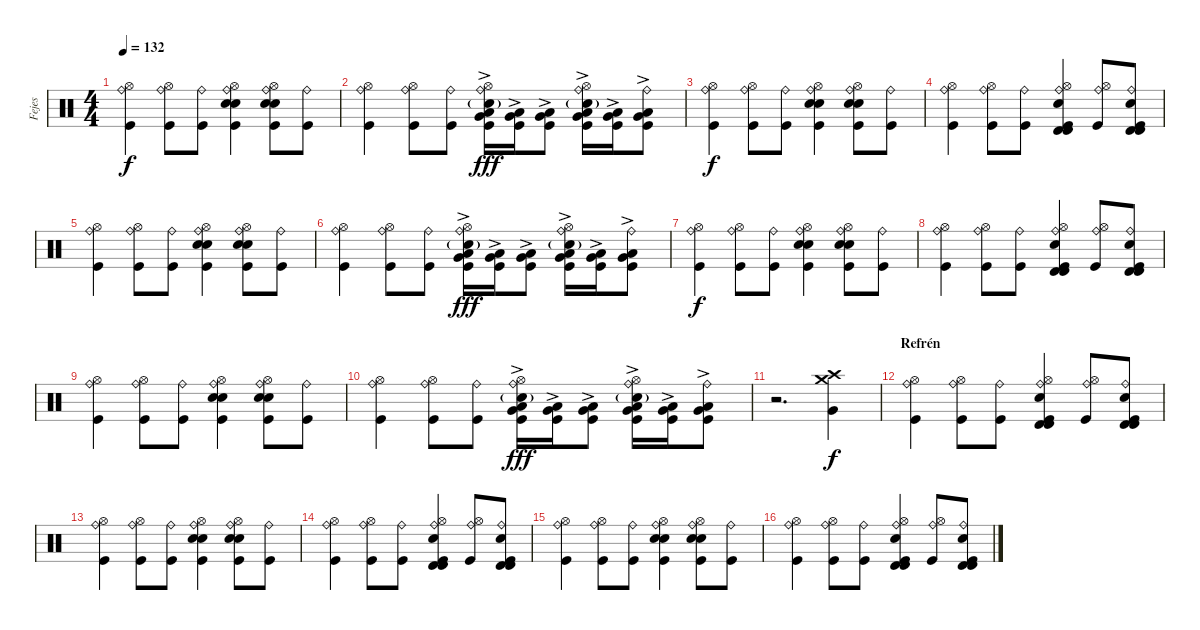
\track ("Fejes" "Fejes") {instrument percussion}
\staff {score}
\articulation defaults
\ts (4 4)
\tempo 132
\clef neutral
\ks c
("Ride (bell)" "Hi-Hat (open)" "Kick (hit)").4{dy f} ("Ride (bell)" "Hi-Hat (open)" "Kick (hit)").8 ("Ride (bell)" "Kick (hit)").8 ("Ride (bell)" "Hi-Hat (open)" "Snare (hit) 2" "Snare (hit) 2" "Kick (hit)").4 ("Ride (bell)" "Hi-Hat (open)" "Snare (hit) 2" "Snare (hit) 2" "Kick (hit)").8 ("Ride (bell)" "Kick (hit)").8 |
("Ride (bell)" "Hi-Hat (open)" "Kick (hit)").4 ("Ride (bell)" "Hi-Hat (open)" "Kick (hit)").8 ("Ride (bell)" "Kick (hit)").8 ("Ride (bell)" "Hi-Hat (open)" "Snare (hit) 2"{g} "Low Floor Tom (hit)"{ac} "Very Low Tom (hit)"{ac} "Kick (hit)").16{dy fff} ("Low Floor Tom (hit)"{ac} "Very Low Tom (hit)"{ac} "Kick (hit)").16 ("Low Floor Tom (hit)"{ac} "Very Low Tom (hit)"{ac} "Kick (hit)").8 ("Ride (bell)" "Hi-Hat (open)" "Snare (hit) 2"{g} "Low Floor Tom (hit)"{ac} "Very Low Tom (hit)"{ac} "Kick (hit)").16 ("Low Floor Tom (hit)"{ac} "Very Low Tom (hit)"{ac} "Kick (hit)").16 ("Ride (bell)" "Low Floor Tom (hit)"{ac} "Very Low Tom (hit)"{ac} "Kick (hit)").8 |
("Ride (bell)" "Hi-Hat (open)" "Kick (hit)").4{dy f} ("Ride (bell)" "Hi-Hat (open)" "Kick (hit)").8 ("Ride (bell)" "Kick (hit)").8 ("Ride (bell)" "Hi-Hat (open)" "Snare (hit) 2" "Snare (hit) 2" "Kick (hit)").4 ("Ride (bell)" "Hi-Hat (open)" "Snare (hit) 2" "Snare (hit) 2" "Kick (hit)").8 ("Ride (bell)" "Kick (hit)").8 |
("Ride (bell)" "Hi-Hat (open)" "Kick (hit)").4 ("Ride (bell)" "Hi-Hat (open)" "Kick (hit)").8 ("Ride (bell)" "Kick (hit)").8 ("Ride (bell)" "Hi-Hat (open)" "Snare (hit) 2" "Timbale high (hit)" "Timbale high (hit)" "Kick (hit)").4 ("Ride (bell)" "Hi-Hat (open)" "Kick (hit)").8 ("Ride (bell)" "Snare (hit) 2" "Timbale high (hit)" "Timbale high (hit)" "Kick (hit)").8 |
("Ride (bell)" "Hi-Hat (open)" "Kick (hit)").4 ("Ride (bell)" "Hi-Hat (open)" "Kick (hit)").8 ("Ride (bell)" "Kick (hit)").8 ("Ride (bell)" "Hi-Hat (open)" "Snare (hit) 2" "Snare (hit) 2" "Kick (hit)").4 ("Ride (bell)" "Hi-Hat (open)" "Snare (hit) 2" "Snare (hit) 2" "Kick (hit)").8 ("Ride (bell)" "Kick (hit)").8 |
("Ride (bell)" "Hi-Hat (open)" "Kick (hit)").4 ("Ride (bell)" "Hi-Hat (open)" "Kick (hit)").8 ("Ride (bell)" "Kick (hit)").8 ("Ride (bell)" "Hi-Hat (open)" "Snare (hit) 2"{g} "Low Floor Tom (hit)"{ac} "Very Low Tom (hit)"{ac} "Kick (hit)").16{dy fff} ("Low Floor Tom (hit)"{ac} "Very Low Tom (hit)"{ac} "Kick (hit)").16 ("Low Floor Tom (hit)"{ac} "Very Low Tom (hit)"{ac} "Kick (hit)").8 ("Ride (bell)" "Hi-Hat (open)" "Snare (hit) 2"{g} "Low Floor Tom (hit)"{ac} "Very Low Tom (hit)"{ac} "Kick (hit)").16 ("Low Floor Tom (hit)"{ac} "Very Low Tom (hit)"{ac} "Kick (hit)").16 ("Ride (bell)" "Low Floor Tom (hit)"{ac} "Very Low Tom (hit)"{ac} "Kick (hit)").8 |
("Ride (bell)" "Hi-Hat (open)" "Kick (hit)").4{dy f} ("Ride (bell)" "Hi-Hat (open)" "Kick (hit)").8 ("Ride (bell)" "Kick (hit)").8 ("Ride (bell)" "Hi-Hat (open)" "Snare (hit) 2" "Snare (hit) 2" "Kick (hit)").4 ("Ride (bell)" "Hi-Hat (open)" "Snare (hit) 2" "Snare (hit) 2" "Kick (hit)").8 ("Ride (bell)" "Kick (hit)").8 |
("Ride (bell)" "Hi-Hat (open)" "Kick (hit)").4 ("Ride (bell)" "Hi-Hat (open)" "Kick (hit)").8 ("Ride (bell)" "Kick (hit)").8 ("Ride (bell)" "Hi-Hat (open)" "Snare (hit) 2" "Timbale high (hit)" "Timbale high (hit)" "Kick (hit)").4 ("Ride (bell)" "Hi-Hat (open)" "Kick (hit)").8 ("Ride (bell)" "Snare (hit) 2" "Timbale high (hit)" "Timbale high (hit)" "Kick (hit)").8 |
("Ride (bell)" "Hi-Hat (open)" "Kick (hit)").4 ("Ride (bell)" "Hi-Hat (open)" "Kick (hit)").8 ("Ride (bell)" "Kick (hit)").8 ("Ride (bell)" "Hi-Hat (open)" "Snare (hit) 2" "Snare (hit) 2" "Kick (hit)").4 ("Ride (bell)" "Hi-Hat (open)" "Snare (hit) 2" "Snare (hit) 2" "Kick (hit)").8 ("Ride (bell)" "Kick (hit)").8 |
("Ride (bell)" "Hi-Hat (open)" "Kick (hit)").4 ("Ride (bell)" "Hi-Hat (open)" "Kick (hit)").8 ("Ride (bell)" "Kick (hit)").8 ("Ride (bell)" "Hi-Hat (open)" "Snare (hit) 2"{g} "Low Floor Tom (hit)"{ac} "Very Low Tom (hit)"{ac} "Kick (hit)").16{dy fff} ("Low Floor Tom (hit)"{ac} "Very Low Tom (hit)"{ac} "Kick (hit)").16 ("Low Floor Tom (hit)"{ac} "Very Low Tom (hit)"{ac} "Kick (hit)").8 ("Ride (bell)" "Hi-Hat (open)" "Snare (hit) 2"{g} "Low Floor Tom (hit)"{ac} "Very Low Tom (hit)"{ac} "Kick (hit)").16 ("Low Floor Tom (hit)"{ac} "Very Low Tom (hit)"{ac} "Kick (hit)").16 ("Ride (bell)" "Low Floor Tom (hit)"{ac} "Very Low Tom (hit)"{ac} "Kick (hit)").8 |
r.2{d} ("Crash high (hit)" "Crash medium (hit)" "Very Low Tom (hit)").4{dy f} |
\section ("" "Refrén")
("Ride (bell)" "Hi-Hat (open)" "Kick (hit)").4 ("Ride (bell)" "Hi-Hat (open)" "Kick (hit)").8 ("Ride (bell)" "Kick (hit)").8 ("Ride (bell)" "Hi-Hat (open)" "Snare (hit) 2" "Timbale high (hit)" "Timbale high (hit)" "Kick (hit)").4 ("Ride (bell)" "Hi-Hat (open)" "Kick (hit)").8 ("Ride (bell)" "Snare (hit) 2" "Timbale high (hit)" "Timbale high (hit)" "Kick (hit)").8 |
("Ride (bell)" "Hi-Hat (open)" "Kick (hit)").4 ("Ride (bell)" "Hi-Hat (open)" "Kick (hit)").8 ("Ride (bell)" "Kick (hit)").8 ("Ride (bell)" "Hi-Hat (open)" "Snare (hit) 2" "Snare (hit) 2" "Kick (hit)").4 ("Ride (bell)" "Hi-Hat (open)" "Snare (hit) 2" "Snare (hit) 2" "Kick (hit)").8 ("Ride (bell)" "Kick (hit)").8 |
("Ride (bell)" "Hi-Hat (open)" "Kick (hit)").4 ("Ride (bell)" "Hi-Hat (open)" "Kick (hit)").8 ("Ride (bell)" "Kick (hit)").8 ("Ride (bell)" "Hi-Hat (open)" "Snare (hit) 2" "Timbale high (hit)" "Timbale high (hit)" "Kick (hit)").4 ("Ride (bell)" "Hi-Hat (open)" "Kick (hit)").8 ("Ride (bell)" "Snare (hit) 2" "Timbale high (hit)" "Timbale high (hit)" "Kick (hit)").8 |
("Ride (bell)" "Hi-Hat (open)" "Kick (hit)").4 ("Ride (bell)" "Hi-Hat (open)" "Kick (hit)").8 ("Ride (bell)" "Kick (hit)").8 ("Ride (bell)" "Hi-Hat (open)" "Snare (hit) 2" "Snare (hit) 2" "Kick (hit)").4 ("Ride (bell)" "Hi-Hat (open)" "Snare (hit) 2" "Snare (hit) 2" "Kick (hit)").8 ("Ride (bell)" "Kick (hit)").8 |
("Ride (bell)" "Hi-Hat (open)" "Kick (hit)").4 ("Ride (bell)" "Hi-Hat (open)" "Kick (hit)").8 ("Ride (bell)" "Kick (hit)").8 ("Ride (bell)" "Hi-Hat (open)" "Snare (hit) 2" "Timbale high (hit)" "Timbale high (hit)" "Kick (hit)").4 ("Ride (bell)" "Hi-Hat (open)" "Kick (hit)").8 ("Ride (bell)" "Snare (hit) 2" "Timbale high (hit)" "Timbale high (hit)" "Kick (hit)").8
